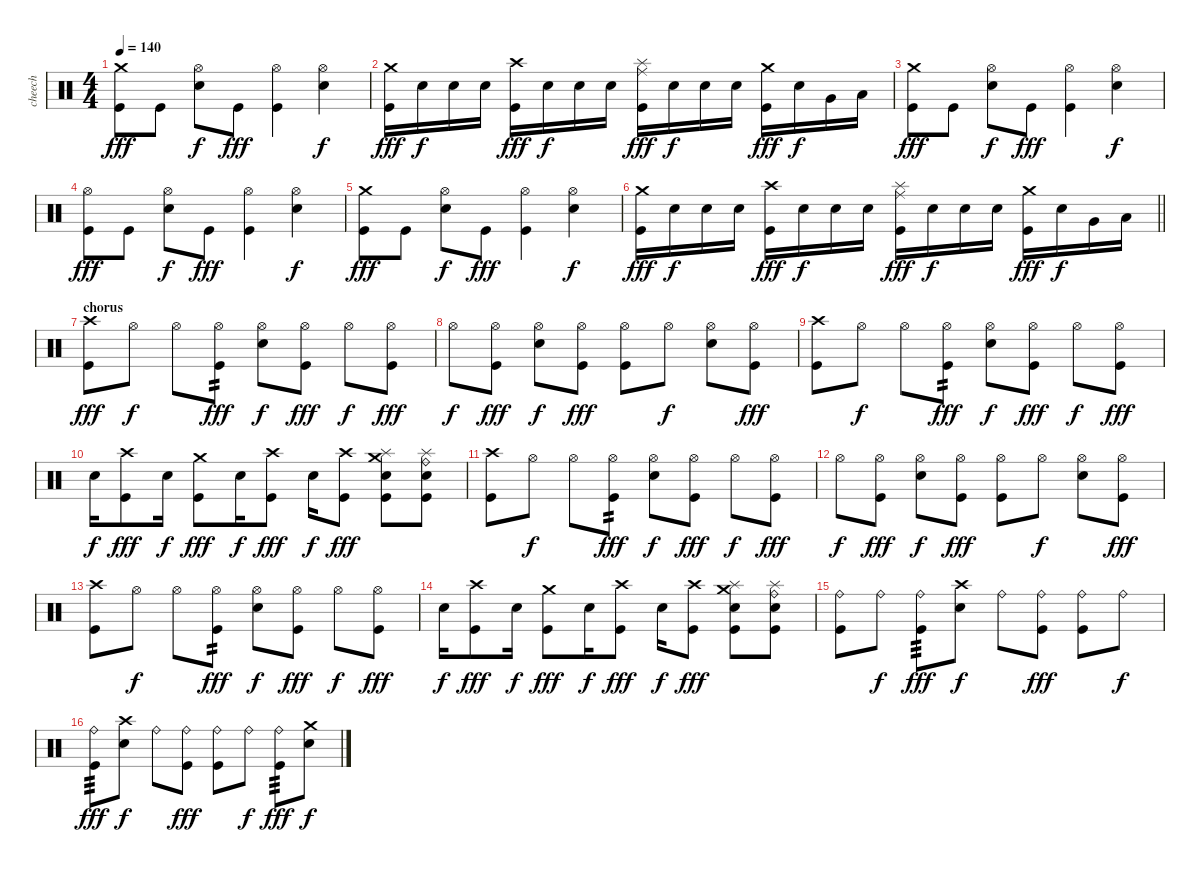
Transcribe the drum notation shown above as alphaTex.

\track ("cheech" "cheech") {solo instrument percussion}
\staff {score}
\articulation defaults
\ts (4 4)
\tempo 140
\clef neutral
\ks c
("Crash medium (hit)" "Kick (hit)").8{dy fff} "Kick (hit)".8 ("Hi-Hat (open)" "Electric Snare (hit)").8{dy f} "Kick (hit)".8{dy fff} ("Hi-Hat (open)" "Kick (hit)").4 ("Hi-Hat (open)" "Electric Snare (hit)").4{dy f} |
("Crash medium (hit)" "Kick (hit)").16{dy fff} "Electric Snare (hit)".16{dy f} "Electric Snare (hit)".16 "Electric Snare (hit)".16 ("Crash high (hit)" "Kick (hit)").16{dy fff} "Electric Snare (hit)".16{dy f} "Electric Snare (hit)".16 "Electric Snare (hit)".16 ("Splash (hit)" "Ride (middle)" "Kick (hit)").16{dy fff} "Electric Snare (hit)".16{dy f} "Electric Snare (hit)".16 "Electric Snare (hit)".16 ("Crash medium (hit)" "Kick (hit)").16{dy fff} "Electric Snare (hit)".16{dy f} "Very Low Tom (hit)".16 "Low Floor Tom (hit)".16 |
("Crash medium (hit)" "Kick (hit)").8{dy fff} "Kick (hit)".8 ("Hi-Hat (open)" "Electric Snare (hit)").8{dy f} "Kick (hit)".8{dy fff} ("Hi-Hat (open)" "Kick (hit)").4 ("Hi-Hat (open)" "Electric Snare (hit)").4{dy f} |
("Hi-Hat (open)" "Kick (hit)").8{dy fff} "Kick (hit)".8 ("Hi-Hat (open)" "Electric Snare (hit)").8{dy f} "Kick (hit)".8{dy fff} ("Hi-Hat (open)" "Kick (hit)").4 ("Hi-Hat (open)" "Electric Snare (hit)").4{dy f} |
("Crash medium (hit)" "Kick (hit)").8{dy fff} "Kick (hit)".8 ("Hi-Hat (open)" "Electric Snare (hit)").8{dy f} "Kick (hit)".8{dy fff} ("Hi-Hat (open)" "Kick (hit)").4 ("Hi-Hat (open)" "Electric Snare (hit)").4{dy f} |
\barLineRight lightlight
("Crash medium (hit)" "Kick (hit)").16{dy fff} "Electric Snare (hit)".16{dy f} "Electric Snare (hit)".16 "Electric Snare (hit)".16 ("Crash high (hit)" "Kick (hit)").16{dy fff} "Electric Snare (hit)".16{dy f} "Electric Snare (hit)".16 "Electric Snare (hit)".16 ("Splash (hit)" "Ride (middle)" "Kick (hit)").16{dy fff} "Electric Snare (hit)".16{dy f} "Electric Snare (hit)".16 "Electric Snare (hit)".16 ("Crash medium (hit)" "Kick (hit)").16{dy fff} "Electric Snare (hit)".16{dy f} "Very Low Tom (hit)".16 "Low Floor Tom (hit)".16 |
\section ("" "chorus")
("Crash high (hit)" "Kick (hit)").8{dy fff} "Hi-Hat (open)".8{dy f} "Hi-Hat (open)".8 ("Hi-Hat (open)" "Kick (hit)").8{tp 2 dy fff} ("Hi-Hat (open)" "Electric Snare (hit)").8{dy f} ("Hi-Hat (open)" "Kick (hit)").8{dy fff} "Hi-Hat (open)".8{dy f} ("Hi-Hat (open)" "Kick (hit)").8{dy fff} |
"Hi-Hat (open)".8{dy f} ("Hi-Hat (open)" "Kick (hit)").8{dy fff} ("Hi-Hat (open)" "Electric Snare (hit)").8{dy f} ("Hi-Hat (open)" "Kick (hit)").8{dy fff} ("Hi-Hat (open)" "Kick (hit)").8 "Hi-Hat (open)".8{dy f} ("Hi-Hat (open)" "Electric Snare (hit)").8 ("Hi-Hat (open)" "Kick (hit)").8{dy fff} |
("Crash high (hit)" "Kick (hit)").8 "Hi-Hat (open)".8{dy f} "Hi-Hat (open)".8 ("Hi-Hat (open)" "Kick (hit)").8{tp 2 dy fff} ("Hi-Hat (open)" "Electric Snare (hit)").8{dy f} ("Hi-Hat (open)" "Kick (hit)").8{dy fff} "Hi-Hat (open)".8{dy f} ("Hi-Hat (open)" "Kick (hit)").8{dy fff} |
"Electric Snare (hit)".16{dy f} ("Crash high (hit)" "Kick (hit)").8{dy fff} "Electric Snare (hit)".16{dy f} ("Crash medium (hit)" "Kick (hit)").8{dy fff} "Electric Snare (hit)".16{dy f} ("Crash high (hit)" "Kick (hit)").8{dy fff} "Electric Snare (hit)".16{dy f} ("Crash high (hit)" "Kick (hit)").8{dy fff} ("Splash (hit)" "Crash medium (hit)" "Electric Snare (hit)" "Kick (hit)").8 ("Ride (bell)" "Splash (hit)" "Electric Snare (hit)" "Kick (hit)").8 |
("Crash high (hit)" "Kick (hit)").8 "Hi-Hat (open)".8{dy f} "Hi-Hat (open)".8 ("Hi-Hat (open)" "Kick (hit)").8{tp 2 dy fff} ("Hi-Hat (open)" "Electric Snare (hit)").8{dy f} ("Hi-Hat (open)" "Kick (hit)").8{dy fff} "Hi-Hat (open)".8{dy f} ("Hi-Hat (open)" "Kick (hit)").8{dy fff} |
"Hi-Hat (open)".8{dy f} ("Hi-Hat (open)" "Kick (hit)").8{dy fff} ("Hi-Hat (open)" "Electric Snare (hit)").8{dy f} ("Hi-Hat (open)" "Kick (hit)").8{dy fff} ("Hi-Hat (open)" "Kick (hit)").8 "Hi-Hat (open)".8{dy f} ("Hi-Hat (open)" "Electric Snare (hit)").8 ("Hi-Hat (open)" "Kick (hit)").8{dy fff} |
("Crash high (hit)" "Kick (hit)").8 "Hi-Hat (open)".8{dy f} "Hi-Hat (open)".8 ("Hi-Hat (open)" "Kick (hit)").8{tp 2 dy fff} ("Hi-Hat (open)" "Electric Snare (hit)").8{dy f} ("Hi-Hat (open)" "Kick (hit)").8{dy fff} "Hi-Hat (open)".8{dy f} ("Hi-Hat (open)" "Kick (hit)").8{dy fff} |
"Electric Snare (hit)".16{dy f} ("Crash high (hit)" "Kick (hit)").8{dy fff} "Electric Snare (hit)".16{dy f} ("Crash medium (hit)" "Kick (hit)").8{dy fff} "Electric Snare (hit)".16{dy f} ("Crash high (hit)" "Kick (hit)").8{dy fff} "Electric Snare (hit)".16{dy f} ("Crash high (hit)" "Kick (hit)").8{dy fff} ("Splash (hit)" "Crash medium (hit)" "Electric Snare (hit)" "Kick (hit)").8 ("Ride (bell)" "Splash (hit)" "Electric Snare (hit)" "Kick (hit)").8 |
("Ride (bell)" "Kick (hit)").8 "Ride (bell)".8{dy f} ("Ride (bell)" "Kick (hit)").8{tp 3 dy fff} ("Crash high (hit)" "Electric Snare (hit)").8{dy f} "Ride (bell)".8 ("Ride (bell)" "Kick (hit)").8{dy fff} ("Ride (bell)" "Kick (hit)").8 "Ride (bell)".8{dy f} |
("Ride (bell)" "Kick (hit)").8{tp 3 dy fff} ("Crash high (hit)" "Electric Snare (hit)").8{dy f} "Ride (bell)".8 ("Ride (bell)" "Kick (hit)").8{dy fff} ("Ride (bell)" "Kick (hit)").8 "Ride (bell)".8{dy f} ("Ride (bell)" "Kick (hit)").8{tp 3 dy fff} ("Crash medium (hit)" "Electric Snare (hit)").8{dy f}
